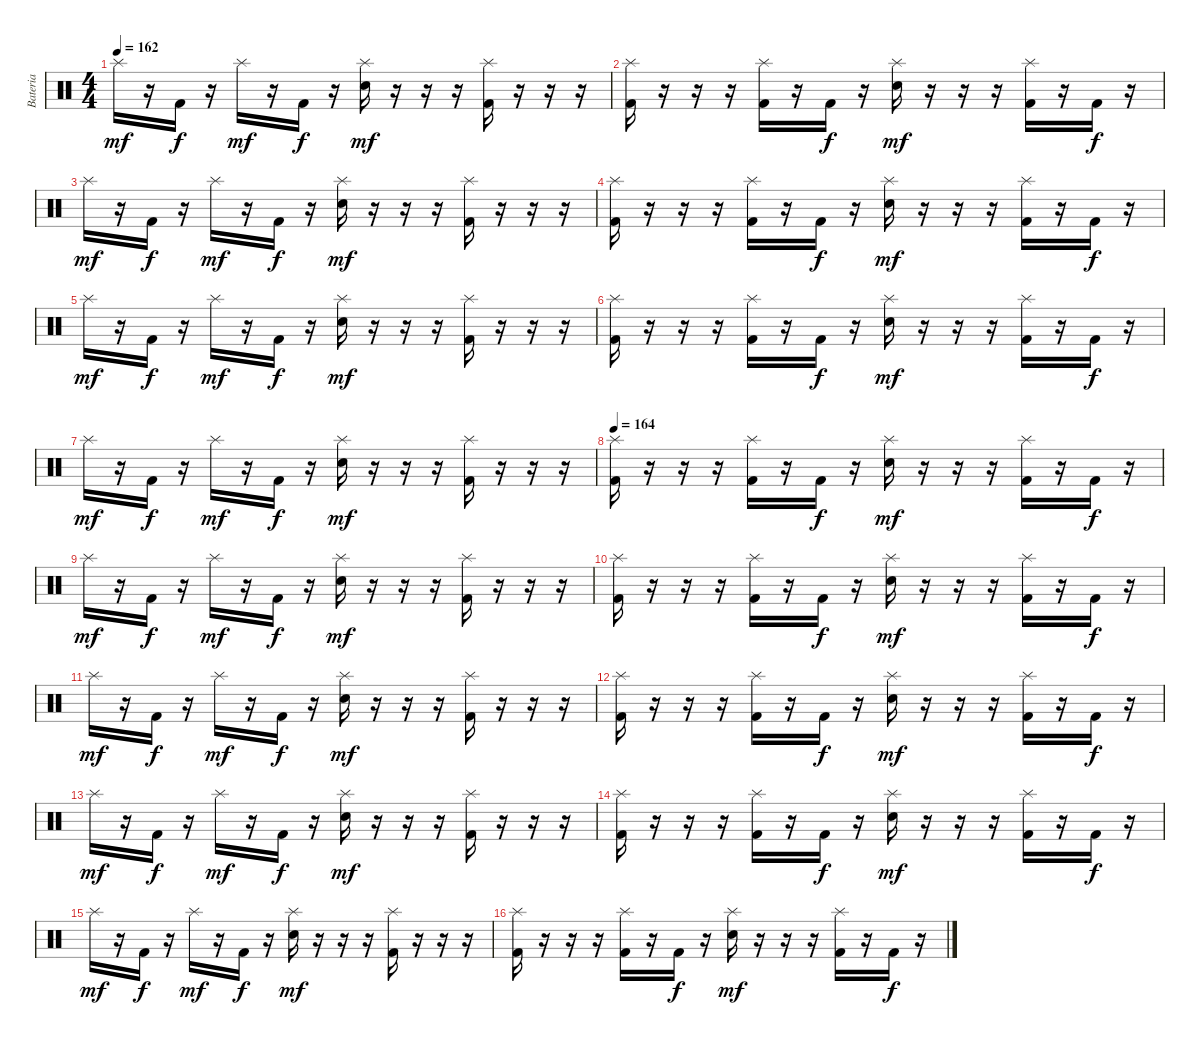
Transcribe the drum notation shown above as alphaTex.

\track ("Bateria" "Bateria") {instrument percussion}
\staff {score}
\articulation defaults
\ts (4 4)
\tempo 162
\clef neutral
\ks c "Splash (hit)".16{dy mf}
r.16 "Kick (hit) 2".16{dy f} r.16 "Splash (hit)".16{dy mf} r.16 "Kick (hit) 2".16{dy f} r.16 ("Splash (hit)" "Electric Snare (hit)").16{dy mf} r.16 r.16 r.16 ("Splash (hit)" "Kick (hit) 2").16 r.16 r.16 r.16 |
("Splash (hit)" "Kick (hit) 2").16 r.16 r.16 r.16 ("Splash (hit)" "Kick (hit) 2").16 r.16 "Kick (hit) 2".16{dy f} r.16 ("Splash (hit)" "Electric Snare (hit)").16{dy mf} r.16 r.16 r.16 ("Splash (hit)" "Kick (hit) 2").16 r.16 "Kick (hit) 2".16{dy f} r.16 |
"Splash (hit)".16{dy mf} r.16 "Kick (hit) 2".16{dy f} r.16 "Splash (hit)".16{dy mf} r.16 "Kick (hit) 2".16{dy f} r.16 ("Splash (hit)" "Electric Snare (hit)").16{dy mf} r.16 r.16 r.16 ("Splash (hit)" "Kick (hit) 2").16 r.16 r.16 r.16 |
("Splash (hit)" "Kick (hit) 2").16 r.16 r.16 r.16 ("Splash (hit)" "Kick (hit) 2").16 r.16 "Kick (hit) 2".16{dy f} r.16 ("Splash (hit)" "Electric Snare (hit)").16{dy mf} r.16 r.16 r.16 ("Splash (hit)" "Kick (hit) 2").16 r.16 "Kick (hit) 2".16{dy f} r.16 |
"Splash (hit)".16{dy mf} r.16 "Kick (hit) 2".16{dy f} r.16 "Splash (hit)".16{dy mf} r.16 "Kick (hit) 2".16{dy f} r.16 ("Splash (hit)" "Electric Snare (hit)").16{dy mf} r.16 r.16 r.16 ("Splash (hit)" "Kick (hit) 2").16 r.16 r.16 r.16 |
("Splash (hit)" "Kick (hit) 2").16 r.16 r.16 r.16 ("Splash (hit)" "Kick (hit) 2").16 r.16 "Kick (hit) 2".16{dy f} r.16 ("Splash (hit)" "Electric Snare (hit)").16{dy mf} r.16 r.16 r.16 ("Splash (hit)" "Kick (hit) 2").16 r.16 "Kick (hit) 2".16{dy f} r.16 |
"Splash (hit)".16{dy mf} r.16 "Kick (hit) 2".16{dy f} r.16 "Splash (hit)".16{dy mf} r.16 "Kick (hit) 2".16{dy f} r.16 ("Splash (hit)" "Electric Snare (hit)").16{dy mf} r.16 r.16 r.16 ("Splash (hit)" "Kick (hit) 2").16 r.16 r.16 r.16 |
\tempo 164
("Splash (hit)" "Kick (hit) 2").16 r.16 r.16 r.16 ("Splash (hit)" "Kick (hit) 2").16 r.16 "Kick (hit) 2".16{dy f} r.16 ("Splash (hit)" "Electric Snare (hit)").16{dy mf} r.16 r.16 r.16 ("Splash (hit)" "Kick (hit) 2").16 r.16 "Kick (hit) 2".16{dy f} r.16 |
"Splash (hit)".16{dy mf} r.16 "Kick (hit) 2".16{dy f} r.16 "Splash (hit)".16{dy mf} r.16 "Kick (hit) 2".16{dy f} r.16 ("Splash (hit)" "Electric Snare (hit)").16{dy mf} r.16 r.16 r.16 ("Splash (hit)" "Kick (hit) 2").16 r.16 r.16 r.16 |
("Splash (hit)" "Kick (hit) 2").16 r.16 r.16 r.16 ("Splash (hit)" "Kick (hit) 2").16 r.16 "Kick (hit) 2".16{dy f} r.16 ("Splash (hit)" "Electric Snare (hit)").16{dy mf} r.16 r.16 r.16 ("Splash (hit)" "Kick (hit) 2").16 r.16 "Kick (hit) 2".16{dy f} r.16 |
"Splash (hit)".16{dy mf} r.16 "Kick (hit) 2".16{dy f} r.16 "Splash (hit)".16{dy mf} r.16 "Kick (hit) 2".16{dy f} r.16 ("Splash (hit)" "Electric Snare (hit)").16{dy mf} r.16 r.16 r.16 ("Splash (hit)" "Kick (hit) 2").16 r.16 r.16 r.16 |
("Splash (hit)" "Kick (hit) 2").16 r.16 r.16 r.16 ("Splash (hit)" "Kick (hit) 2").16 r.16 "Kick (hit) 2".16{dy f} r.16 ("Splash (hit)" "Electric Snare (hit)").16{dy mf} r.16 r.16 r.16 ("Splash (hit)" "Kick (hit) 2").16 r.16 "Kick (hit) 2".16{dy f} r.16 |
"Splash (hit)".16{dy mf} r.16 "Kick (hit) 2".16{dy f} r.16 "Splash (hit)".16{dy mf} r.16 "Kick (hit) 2".16{dy f} r.16 ("Splash (hit)" "Electric Snare (hit)").16{dy mf} r.16 r.16 r.16 ("Splash (hit)" "Kick (hit) 2").16 r.16 r.16 r.16 |
("Splash (hit)" "Kick (hit) 2").16 r.16 r.16 r.16 ("Splash (hit)" "Kick (hit) 2").16 r.16 "Kick (hit) 2".16{dy f} r.16 ("Splash (hit)" "Electric Snare (hit)").16{dy mf} r.16 r.16 r.16 ("Splash (hit)" "Kick (hit) 2").16 r.16 "Kick (hit) 2".16{dy f} r.16 |
"Splash (hit)".16{dy mf} r.16 "Kick (hit) 2".16{dy f} r.16 "Splash (hit)".16{dy mf} r.16 "Kick (hit) 2".16{dy f} r.16 ("Splash (hit)" "Electric Snare (hit)").16{dy mf} r.16 r.16 r.16 ("Splash (hit)" "Kick (hit) 2").16 r.16 r.16 r.16 |
("Splash (hit)" "Kick (hit) 2").16 r.16 r.16 r.16 ("Splash (hit)" "Kick (hit) 2").16 r.16 "Kick (hit) 2".16{dy f} r.16 ("Splash (hit)" "Electric Snare (hit)").16{dy mf} r.16 r.16 r.16 ("Splash (hit)" "Kick (hit) 2").16 r.16 "Kick (hit) 2".16{dy f} r.16
